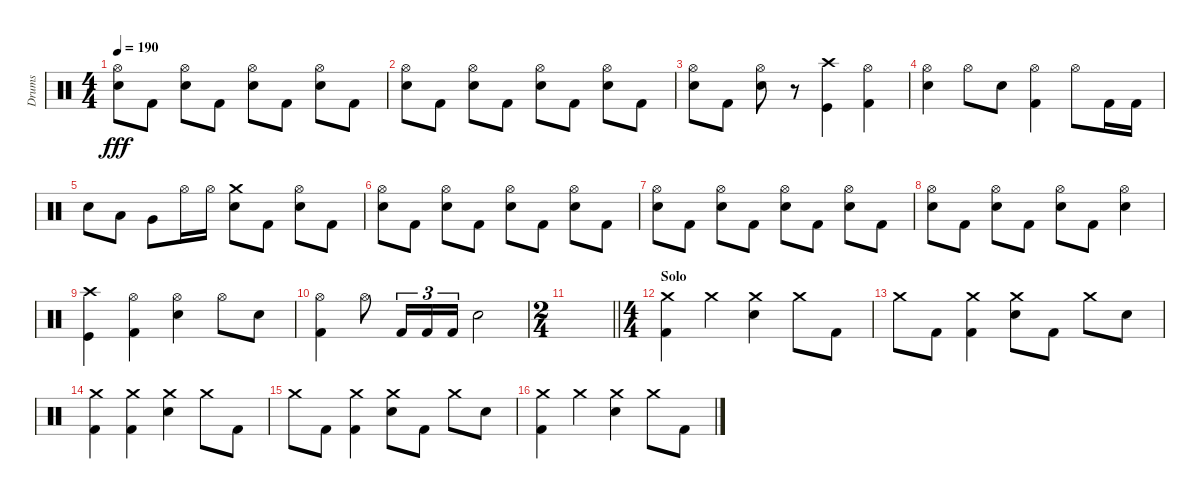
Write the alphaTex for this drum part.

\track ("Drums" "Drums") {instrument percussion}
\staff {score}
\articulation defaults
\ts (4 4)
\tempo 190
\clef neutral
\ks c
("Hi-Hat (open)" "Electric Snare (hit)").8{dy fff} "Kick (hit) 2".8 ("Hi-Hat (open)" "Electric Snare (hit)").8 "Kick (hit) 2".8 ("Hi-Hat (open)" "Electric Snare (hit)").8 "Kick (hit) 2".8 ("Hi-Hat (open)" "Electric Snare (hit)").8 "Kick (hit) 2".8 |
("Hi-Hat (open)" "Electric Snare (hit)").8 "Kick (hit) 2".8 ("Hi-Hat (open)" "Electric Snare (hit)").8 "Kick (hit) 2".8 ("Hi-Hat (open)" "Electric Snare (hit)").8 "Kick (hit) 2".8 ("Hi-Hat (open)" "Electric Snare (hit)").8 "Kick (hit) 2".8 |
("Hi-Hat (open)" "Electric Snare (hit)").8 "Kick (hit) 2".8 ("Hi-Hat (open)" "Electric Snare (hit)").8 r.8 ("Crash high (hit)" "Kick (hit)").4 ("Kick (hit) 2" "Hi-Hat (open)").4 |
("Hi-Hat (open)" "Electric Snare (hit)").4 "Hi-Hat (open)".8 "Electric Snare (hit)".8 ("Hi-Hat (open)" "Kick (hit) 2").4 "Hi-Hat (open)".8 "Kick (hit) 2".16 "Kick (hit) 2".16 |
"Electric Snare (hit)".8 "Low Tom (hit)".8 "Very Low Tom (hit)".8 "Hi-Hat (open)".16 "Hi-Hat (open)".16 ("Electric Snare (hit)" "Crash medium (hit)").8 "Kick (hit) 2".8 ("Hi-Hat (open)" "Electric Snare (hit)").8 "Kick (hit) 2".8 |
("Hi-Hat (open)" "Electric Snare (hit)").8 "Kick (hit) 2".8 ("Hi-Hat (open)" "Electric Snare (hit)").8 "Kick (hit) 2".8 ("Hi-Hat (open)" "Electric Snare (hit)").8 "Kick (hit) 2".8 ("Hi-Hat (open)" "Electric Snare (hit)").8 "Kick (hit) 2".8 |
("Hi-Hat (open)" "Electric Snare (hit)").8 "Kick (hit) 2".8 ("Hi-Hat (open)" "Electric Snare (hit)").8 "Kick (hit) 2".8 ("Hi-Hat (open)" "Electric Snare (hit)").8 "Kick (hit) 2".8 ("Hi-Hat (open)" "Electric Snare (hit)").8 "Kick (hit) 2".8 |
("Hi-Hat (open)" "Electric Snare (hit)").8 "Kick (hit) 2".8 ("Hi-Hat (open)" "Electric Snare (hit)").8 "Kick (hit) 2".8 ("Hi-Hat (open)" "Electric Snare (hit)").8 "Kick (hit) 2".8 ("Hi-Hat (open)" "Electric Snare (hit)").4 |
("Crash high (hit)" "Kick (hit)").4 ("Kick (hit) 2" "Hi-Hat (open)").4 ("Hi-Hat (open)" "Electric Snare (hit)").4 "Hi-Hat (open)".8 "Electric Snare (hit)".8 |
("Hi-Hat (open)" "Kick (hit) 2").4 "Hi-Hat (open)".8 "Kick (hit) 2".16{tu (3 2)} "Kick (hit) 2".16{tu (3 2)} "Kick (hit) 2".16{tu (3 2)} "Electric Snare (hit)".2 |
\ts (2 4)
\barLineRight lightlight
|
\ts (4 4)
\section ("" "Solo")
("Kick (hit) 2" "Crash medium (hit)").4 "Crash medium (hit)".4 ("Crash medium (hit)" "Electric Snare (hit)").4 "Crash medium (hit)".8 "Kick (hit) 2".8 |
"Crash medium (hit)".8 "Kick (hit) 2".8 ("Crash medium (hit)" "Kick (hit) 2").4 ("Electric Snare (hit)" "Crash medium (hit)").8 "Kick (hit) 2".8 "Crash medium (hit)".8 "Electric Snare (hit)".8 |
("Kick (hit) 2" "Crash medium (hit)").4 ("Kick (hit) 2" "Crash medium (hit)").4 ("Electric Snare (hit)" "Crash medium (hit)").4 "Crash medium (hit)".8 "Kick (hit) 2".8 |
"Crash medium (hit)".8 "Kick (hit) 2".8 ("Crash medium (hit)" "Kick (hit) 2").4 ("Electric Snare (hit)" "Crash medium (hit)").8 "Kick (hit) 2".8 "Crash medium (hit)".8 "Electric Snare (hit)".8 |
("Kick (hit) 2" "Crash medium (hit)").4 "Crash medium (hit)".4 ("Crash medium (hit)" "Electric Snare (hit)").4 "Crash medium (hit)".8 "Kick (hit) 2".8
